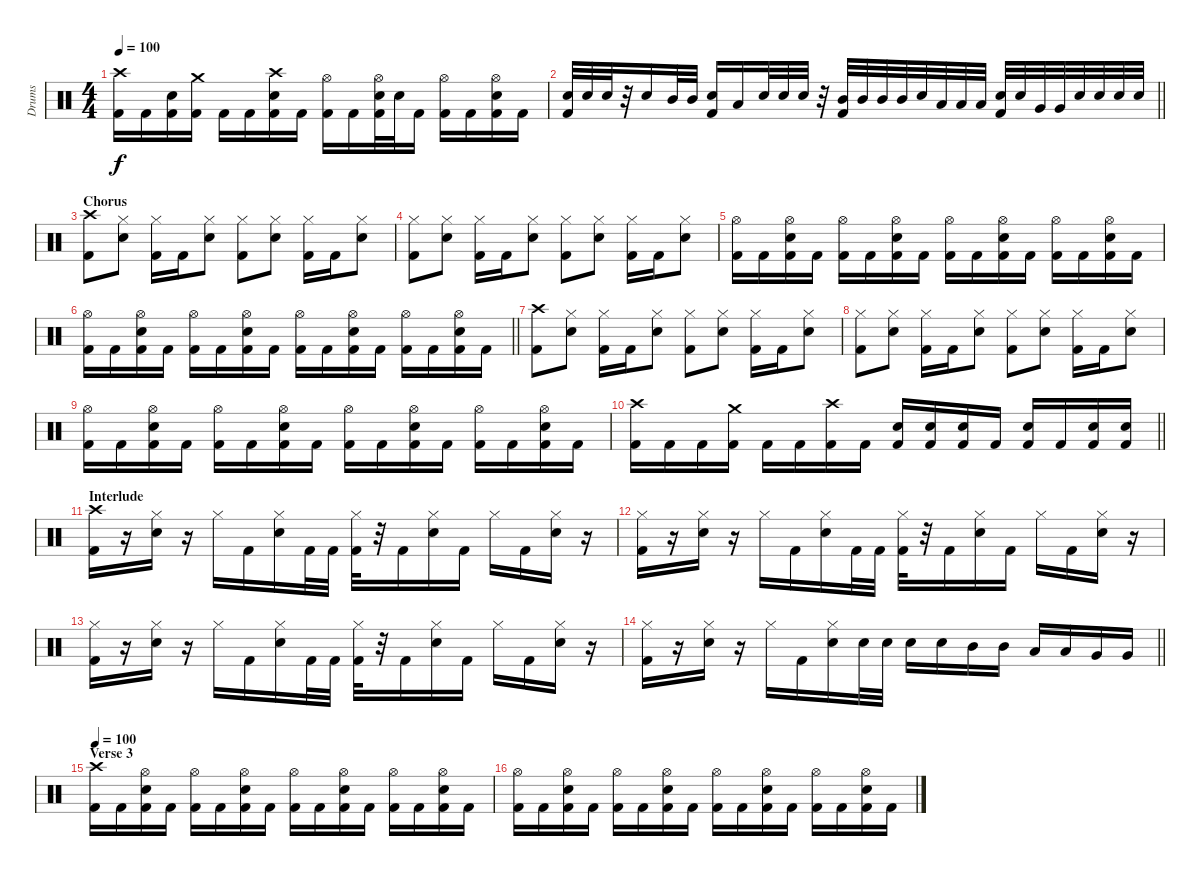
\track ("Drums" "Drums") {instrument percussion}
\staff {score}
\articulation defaults
\ts (4 4)
\tempo 100
\clef neutral
\ks c
("Crash high (hit)" "Kick (hit) 2").16{dy f} "Kick (hit) 2".16 ("Snare (hit) 2" "Kick (hit) 2").16 ("Crash medium (hit)" "Kick (hit) 2").16 "Kick (hit) 2".16 "Kick (hit) 2".16 ("Crash high (hit)" "Snare (hit) 2" "Kick (hit) 2").16 "Kick (hit) 2".16 ("Hi-Hat (open)" "Kick (hit) 2").16 "Kick (hit) 2".16 ("Hi-Hat (open)" "Snare (hit) 2" "Kick (hit) 2").32 "Snare (hit) 2".32 "Kick (hit) 2".16 ("Hi-Hat (open)" "Kick (hit) 2").16 "Kick (hit) 2".16 ("Hi-Hat (open)" "Snare (hit) 2" "Kick (hit) 2").16 "Kick (hit) 2".16 |
\barLineRight lightlight
("Snare (hit) 2" "Kick (hit) 2").32 "Snare (hit) 2".32 "Snare (hit) 2".32 r.32 "Snare (hit) 2".16 "Mid Tom (hit)".32 "Mid Tom (hit)".32 ("Snare (hit) 2" "Kick (hit) 2").16 "Low Tom (hit)".16 "Snare (hit) 2".32 "Snare (hit) 2".32 "Snare (hit) 2".32 r.32 ("Kick (hit) 2" "Mid Tom (hit)").32 "Mid Tom (hit)".32 "Mid Tom (hit)".32 "Mid Tom (hit)".32 "Snare (hit) 2".32 "Low Tom (hit)".32 "Low Tom (hit)".32 "Low Tom (hit)".32 ("Snare (hit) 2" "Kick (hit) 2").32 "Snare (hit) 2".32 "Very Low Tom (hit)".32 "Very Low Tom (hit)".32 "Snare (hit) 2".32 "Snare (hit) 2".32 "Snare (hit) 2".32 "Snare (hit) 2".32 |
\section ("" "Chorus")
("Crash high (hit)" "Kick (hit) 2").8 ("Hi-Hat (closed)" "Snare (hit) 2").8 ("Hi-Hat (closed)" "Kick (hit) 2").16 "Kick (hit) 2".16 ("Hi-Hat (closed)" "Snare (hit) 2").8 ("Hi-Hat (closed)" "Kick (hit) 2").8 ("Hi-Hat (closed)" "Snare (hit) 2").8 ("Hi-Hat (closed)" "Kick (hit) 2").16 "Kick (hit) 2".16 ("Hi-Hat (closed)" "Snare (hit) 2").8 |
("Hi-Hat (closed)" "Kick (hit) 2").8 ("Hi-Hat (closed)" "Snare (hit) 2").8 ("Hi-Hat (closed)" "Kick (hit) 2").16 "Kick (hit) 2".16 ("Hi-Hat (closed)" "Snare (hit) 2").8 ("Hi-Hat (closed)" "Kick (hit) 2").8 ("Hi-Hat (closed)" "Snare (hit) 2").8 ("Hi-Hat (closed)" "Kick (hit) 2").16 "Kick (hit) 2".16 ("Hi-Hat (closed)" "Snare (hit) 2").8 |
("Hi-Hat (open)" "Kick (hit) 2").16 "Kick (hit) 2".16 ("Hi-Hat (open)" "Snare (hit) 2" "Kick (hit) 2").16 "Kick (hit) 2".16 ("Hi-Hat (open)" "Kick (hit) 2").16 "Kick (hit) 2".16 ("Hi-Hat (open)" "Snare (hit) 2" "Kick (hit) 2").16 "Kick (hit) 2".16 ("Hi-Hat (open)" "Kick (hit) 2").16 "Kick (hit) 2".16 ("Hi-Hat (open)" "Snare (hit) 2" "Kick (hit) 2").16 "Kick (hit) 2".16 ("Hi-Hat (open)" "Kick (hit) 2").16 "Kick (hit) 2".16 ("Hi-Hat (open)" "Snare (hit) 2" "Kick (hit) 2").16 "Kick (hit) 2".16 |
\barLineRight lightlight
("Hi-Hat (open)" "Kick (hit) 2").16 "Kick (hit) 2".16 ("Hi-Hat (open)" "Snare (hit) 2" "Kick (hit) 2").16 "Kick (hit) 2".16 ("Hi-Hat (open)" "Kick (hit) 2").16 "Kick (hit) 2".16 ("Hi-Hat (open)" "Snare (hit) 2" "Kick (hit) 2").16 "Kick (hit) 2".16 ("Hi-Hat (open)" "Kick (hit) 2").16 "Kick (hit) 2".16 ("Hi-Hat (open)" "Snare (hit) 2" "Kick (hit) 2").16 "Kick (hit) 2".16 ("Hi-Hat (open)" "Kick (hit) 2").16 "Kick (hit) 2".16 ("Hi-Hat (open)" "Snare (hit) 2" "Kick (hit) 2").16 "Kick (hit) 2".16 |
("Crash high (hit)" "Kick (hit) 2").8 ("Hi-Hat (closed)" "Snare (hit) 2").8 ("Hi-Hat (closed)" "Kick (hit) 2").16 "Kick (hit) 2".16 ("Hi-Hat (closed)" "Snare (hit) 2").8 ("Hi-Hat (closed)" "Kick (hit) 2").8 ("Hi-Hat (closed)" "Snare (hit) 2").8 ("Hi-Hat (closed)" "Kick (hit) 2").16 "Kick (hit) 2".16 ("Hi-Hat (closed)" "Snare (hit) 2").8 |
("Hi-Hat (closed)" "Kick (hit) 2").8 ("Hi-Hat (closed)" "Snare (hit) 2").8 ("Hi-Hat (closed)" "Kick (hit) 2").16 "Kick (hit) 2".16 ("Hi-Hat (closed)" "Snare (hit) 2").8 ("Hi-Hat (closed)" "Kick (hit) 2").8 ("Hi-Hat (closed)" "Snare (hit) 2").8 ("Hi-Hat (closed)" "Kick (hit) 2").16 "Kick (hit) 2".16 ("Hi-Hat (closed)" "Snare (hit) 2").8 |
("Hi-Hat (open)" "Kick (hit) 2").16 "Kick (hit) 2".16 ("Hi-Hat (open)" "Snare (hit) 2" "Kick (hit) 2").16 "Kick (hit) 2".16 ("Hi-Hat (open)" "Kick (hit) 2").16 "Kick (hit) 2".16 ("Hi-Hat (open)" "Snare (hit) 2" "Kick (hit) 2").16 "Kick (hit) 2".16 ("Hi-Hat (open)" "Kick (hit) 2").16 "Kick (hit) 2".16 ("Hi-Hat (open)" "Snare (hit) 2" "Kick (hit) 2").16 "Kick (hit) 2".16 ("Hi-Hat (open)" "Kick (hit) 2").16 "Kick (hit) 2".16 ("Hi-Hat (open)" "Snare (hit) 2" "Kick (hit) 2").16 "Kick (hit) 2".16 |
\barLineRight lightlight
("Crash high (hit)" "Kick (hit) 2").16 "Kick (hit) 2".16 "Kick (hit) 2".16 ("Crash medium (hit)" "Kick (hit) 2").16 "Kick (hit) 2".16 "Kick (hit) 2".16 ("Crash high (hit)" "Kick (hit) 2").16 "Kick (hit) 2".16 ("Snare (hit) 2" "Kick (hit) 2").16 ("Snare (hit) 2" "Kick (hit) 2").16 ("Snare (hit) 2" "Kick (hit) 2").16 "Kick (hit) 2".16 ("Snare (hit) 2" "Kick (hit) 2").16 "Kick (hit) 2".16 ("Snare (hit) 2" "Kick (hit) 2").16 ("Snare (hit) 2" "Kick (hit) 2").16 |
\section ("" "Interlude")
("Crash high (hit)" "Kick (hit) 2").16 r.16 ("Hi-Hat (closed)" "Snare (hit) 2").16 r.16 "Hi-Hat (closed)".16 "Kick (hit) 2".16 ("Hi-Hat (closed)" "Snare (hit) 2").16 "Kick (hit) 2".32 "Kick (hit) 2".32 ("Hi-Hat (closed)" "Kick (hit) 2").32 r.32 "Kick (hit) 2".16 ("Hi-Hat (closed)" "Snare (hit) 2").16 "Kick (hit) 2".16 "Hi-Hat (closed)".16 "Kick (hit) 2".16 ("Hi-Hat (closed)" "Snare (hit) 2").16 r.16 |
("Hi-Hat (closed)" "Kick (hit) 2").16 r.16 ("Hi-Hat (closed)" "Snare (hit) 2").16 r.16 "Hi-Hat (closed)".16 "Kick (hit) 2".16 ("Hi-Hat (closed)" "Snare (hit) 2").16 "Kick (hit) 2".32 "Kick (hit) 2".32 ("Hi-Hat (closed)" "Kick (hit) 2").32 r.32 "Kick (hit) 2".16 ("Hi-Hat (closed)" "Snare (hit) 2").16 "Kick (hit) 2".16 "Hi-Hat (closed)".16 "Kick (hit) 2".16 ("Hi-Hat (closed)" "Snare (hit) 2").16 r.16 |
("Hi-Hat (closed)" "Kick (hit) 2").16 r.16 ("Hi-Hat (closed)" "Snare (hit) 2").16 r.16 "Hi-Hat (closed)".16 "Kick (hit) 2".16 ("Hi-Hat (closed)" "Snare (hit) 2").16 "Kick (hit) 2".32 "Kick (hit) 2".32 ("Hi-Hat (closed)" "Kick (hit) 2").32 r.32 "Kick (hit) 2".16 ("Hi-Hat (closed)" "Snare (hit) 2").16 "Kick (hit) 2".16 "Hi-Hat (closed)".16 "Kick (hit) 2".16 ("Hi-Hat (closed)" "Snare (hit) 2").16 r.16 |
\barLineRight lightlight
("Hi-Hat (closed)" "Kick (hit) 2").16 r.16 ("Hi-Hat (closed)" "Snare (hit) 2").16 r.16 "Hi-Hat (closed)".16 "Kick (hit) 2".16 ("Hi-Hat (closed)" "Snare (hit) 2").16 "Snare (hit) 2".32 "Snare (hit) 2".32 "Snare (hit) 2".16 "Snare (hit) 2".16 "Mid Tom (hit)".16 "Mid Tom (hit)".16 "Low Tom (hit)".16 "Low Tom (hit)".16 "Very Low Tom (hit)".16 "Very Low Tom (hit)".16 |
\section ("" "Verse 3")
\tempo 100
("Crash high (hit)" "Kick (hit) 2").16 "Kick (hit) 2".16 ("Hi-Hat (open)" "Snare (hit) 2" "Kick (hit) 2").16 "Kick (hit) 2".16 ("Hi-Hat (open)" "Kick (hit) 2").16 "Kick (hit) 2".16 ("Hi-Hat (open)" "Snare (hit) 2" "Kick (hit) 2").16 "Kick (hit) 2".16 ("Hi-Hat (open)" "Kick (hit) 2").16 "Kick (hit) 2".16 ("Hi-Hat (open)" "Snare (hit) 2" "Kick (hit) 2").16 "Kick (hit) 2".16 ("Hi-Hat (open)" "Kick (hit) 2").16 "Kick (hit) 2".16 ("Hi-Hat (open)" "Snare (hit) 2" "Kick (hit) 2").16 "Kick (hit) 2".16 |
("Hi-Hat (open)" "Kick (hit) 2").16 "Kick (hit) 2".16 ("Hi-Hat (open)" "Snare (hit) 2" "Kick (hit) 2").16 "Kick (hit) 2".16 ("Hi-Hat (open)" "Kick (hit) 2").16 "Kick (hit) 2".16 ("Hi-Hat (open)" "Snare (hit) 2" "Kick (hit) 2").16 "Kick (hit) 2".16 ("Hi-Hat (open)" "Kick (hit) 2").16 "Kick (hit) 2".16 ("Hi-Hat (open)" "Snare (hit) 2" "Kick (hit) 2").16 "Kick (hit) 2".16 ("Hi-Hat (open)" "Kick (hit) 2").16 "Kick (hit) 2".16 ("Hi-Hat (open)" "Snare (hit) 2" "Kick (hit) 2").16 "Kick (hit) 2".16
